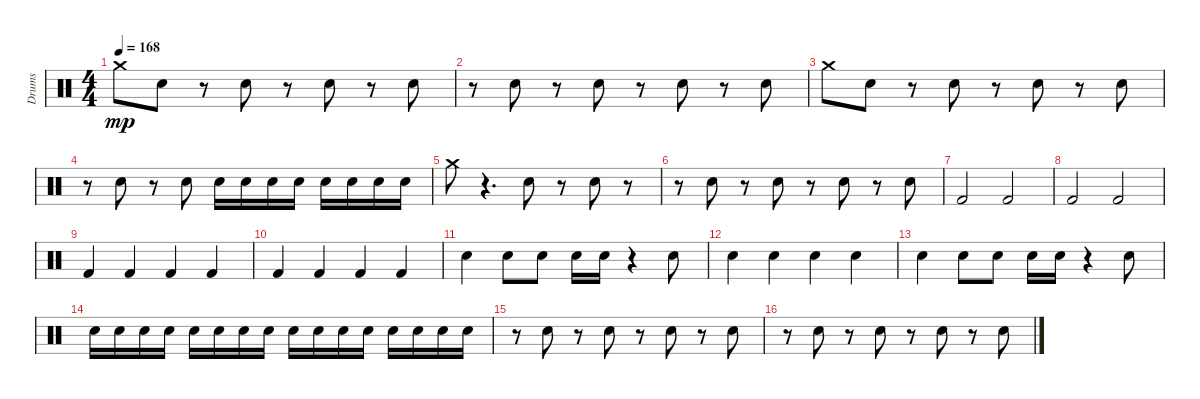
\track ("Drums" "Drums") {instrument percussion}
\staff {score}
\articulation defaults
\ts (4 4)
\tempo 168
\clef neutral
\ks c "Crash medium (hit)".8{dy mp} "Snare (hit) 2".8
r.8 "Snare (hit) 2".8 r.8 "Snare (hit) 2".8 r.8 "Snare (hit) 2".8 |
r.8 "Snare (hit) 2".8 r.8 "Snare (hit) 2".8 r.8 "Snare (hit) 2".8 r.8 "Snare (hit) 2".8 |
"Crash medium (hit)".8 "Snare (hit) 2".8 r.8 "Snare (hit) 2".8 r.8 "Snare (hit) 2".8 r.8 "Snare (hit) 2".8 |
r.8 "Snare (hit) 2".8 r.8 "Snare (hit) 2".8 "Snare (hit) 2".16 "Snare (hit) 2".16 "Snare (hit) 2".16 "Snare (hit) 2".16 "Snare (hit) 2".16 "Snare (hit) 2".16 "Snare (hit) 2".16 "Snare (hit) 2".16 |
"Crash medium (hit)".8 r.4{d} "Snare (hit) 2".8 r.8 "Snare (hit) 2".8 r.8 |
r.8 "Snare (hit) 2".8 r.8 "Snare (hit) 2".8 r.8 "Snare (hit) 2".8 r.8 "Snare (hit) 2".8 |
"Kick (hit) 2".2 "Kick (hit) 2".2 |
"Kick (hit) 2".2 "Kick (hit) 2".2 |
"Kick (hit) 2".4 "Kick (hit) 2".4 "Kick (hit) 2".4 "Kick (hit) 2".4 |
"Kick (hit) 2".4 "Kick (hit) 2".4 "Kick (hit) 2".4 "Kick (hit) 2".4 |
"Snare (hit) 2".4 "Snare (hit) 2".8 "Snare (hit) 2".8 "Snare (hit) 2".16 "Snare (hit) 2".16 r.4 "Snare (hit) 2".8 |
"Snare (hit) 2".4 "Snare (hit) 2".4 "Snare (hit) 2".4 "Snare (hit) 2".4 |
"Snare (hit) 2".4 "Snare (hit) 2".8 "Snare (hit) 2".8 "Snare (hit) 2".16 "Snare (hit) 2".16 r.4 "Snare (hit) 2".8 |
"Snare (hit) 2".16 "Snare (hit) 2".16 "Snare (hit) 2".16 "Snare (hit) 2".16 "Snare (hit) 2".16 "Snare (hit) 2".16 "Snare (hit) 2".16 "Snare (hit) 2".16 "Snare (hit) 2".16 "Snare (hit) 2".16 "Snare (hit) 2".16 "Snare (hit) 2".16 "Snare (hit) 2".16 "Snare (hit) 2".16 "Snare (hit) 2".16 "Snare (hit) 2".16 |
r.8 "Snare (hit) 2".8 r.8 "Snare (hit) 2".8 r.8 "Snare (hit) 2".8 r.8 "Snare (hit) 2".8 |
r.8 "Snare (hit) 2".8 r.8 "Snare (hit) 2".8 r.8 "Snare (hit) 2".8 r.8 "Snare (hit) 2".8
